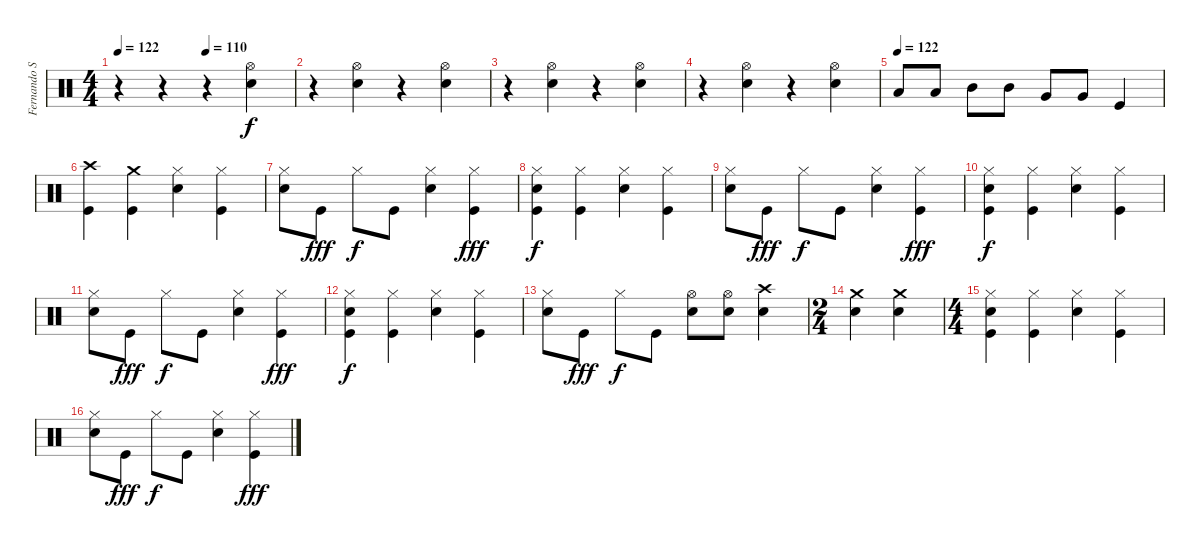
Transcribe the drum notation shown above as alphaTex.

\track ("Fernando Sanchez" "Fernando S") {instrument percussion}
\staff {score}
\articulation defaults
\ts (4 4)
\tempo 122
\tempo (110 0.5)
\tempo 122
\clef neutral
\ks c
r.4{dy f} r.4 r.4 ("Hi-Hat (open)" "Electric Snare (hit)").4 |
r.4 ("Hi-Hat (open)" "Electric Snare (hit)").4 r.4 ("Hi-Hat (open)" "Electric Snare (hit)").4 |
r.4 ("Hi-Hat (open)" "Electric Snare (hit)").4 r.4 ("Hi-Hat (open)" "Electric Snare (hit)").4 |
r.4 ("Hi-Hat (open)" "Electric Snare (hit)").4 r.4 ("Hi-Hat (open)" "Electric Snare (hit)").4 |
\tempo (122)
"Low Tom (hit)".8 "Low Tom (hit)".8 "Mid Tom (hit)".8 "Mid Tom (hit)".8 "Very Low Tom (hit)".8 "Very Low Tom (hit)".8 "Kick (hit)".4 |
("Crash high (hit)" "Kick (hit)").4 ("Crash medium (hit)" "Kick (hit)").4 ("Hi-Hat (closed)" "Electric Snare (hit)").4 ("Hi-Hat (closed)" "Kick (hit)").4 |
("Hi-Hat (closed)" "Electric Snare (hit)").8 "Kick (hit)".8{dy fff} "Hi-Hat (closed)".8{dy f} "Kick (hit)".8 ("Hi-Hat (closed)" "Electric Snare (hit)").4 ("Hi-Hat (closed)" "Kick (hit)").4{dy fff} |
("Hi-Hat (closed)" "Electric Snare (hit)" "Kick (hit)").4{dy f} ("Hi-Hat (closed)" "Kick (hit)").4 ("Hi-Hat (closed)" "Electric Snare (hit)").4 ("Hi-Hat (closed)" "Kick (hit)").4 |
("Hi-Hat (closed)" "Electric Snare (hit)").8 "Kick (hit)".8{dy fff} "Hi-Hat (closed)".8{dy f} "Kick (hit)".8 ("Hi-Hat (closed)" "Electric Snare (hit)").4 ("Hi-Hat (closed)" "Kick (hit)").4{dy fff} |
("Hi-Hat (closed)" "Electric Snare (hit)" "Kick (hit)").4{dy f} ("Hi-Hat (closed)" "Kick (hit)").4 ("Hi-Hat (closed)" "Electric Snare (hit)").4 ("Hi-Hat (closed)" "Kick (hit)").4 |
("Hi-Hat (closed)" "Electric Snare (hit)").8 "Kick (hit)".8{dy fff} "Hi-Hat (closed)".8{dy f} "Kick (hit)".8 ("Hi-Hat (closed)" "Electric Snare (hit)").4 ("Hi-Hat (closed)" "Kick (hit)").4{dy fff} |
("Hi-Hat (closed)" "Electric Snare (hit)" "Kick (hit)").4{dy f} ("Hi-Hat (closed)" "Kick (hit)").4 ("Hi-Hat (closed)" "Electric Snare (hit)").4 ("Hi-Hat (closed)" "Kick (hit)").4 |
("Hi-Hat (closed)" "Electric Snare (hit)").8 "Kick (hit)".8{dy fff} "Hi-Hat (closed)".8{dy f} "Kick (hit)".8 ("Hi-Hat (open)" "Electric Snare (hit)").8 ("Hi-Hat (open)" "Electric Snare (hit)").8 ("Crash high (hit)" "Electric Snare (hit)").4 |
\ts (2 4)
("Crash medium (hit)" "Electric Snare (hit)").4 ("Crash medium (hit)" "Electric Snare (hit)").4 |
\ts (4 4)
("Hi-Hat (closed)" "Electric Snare (hit)" "Kick (hit)").4 ("Hi-Hat (closed)" "Kick (hit)").4 ("Hi-Hat (closed)" "Electric Snare (hit)").4 ("Hi-Hat (closed)" "Kick (hit)").4 |
("Hi-Hat (closed)" "Electric Snare (hit)").8 "Kick (hit)".8{dy fff} "Hi-Hat (closed)".8{dy f} "Kick (hit)".8 ("Hi-Hat (closed)" "Electric Snare (hit)").4 ("Hi-Hat (closed)" "Kick (hit)").4{dy fff}
